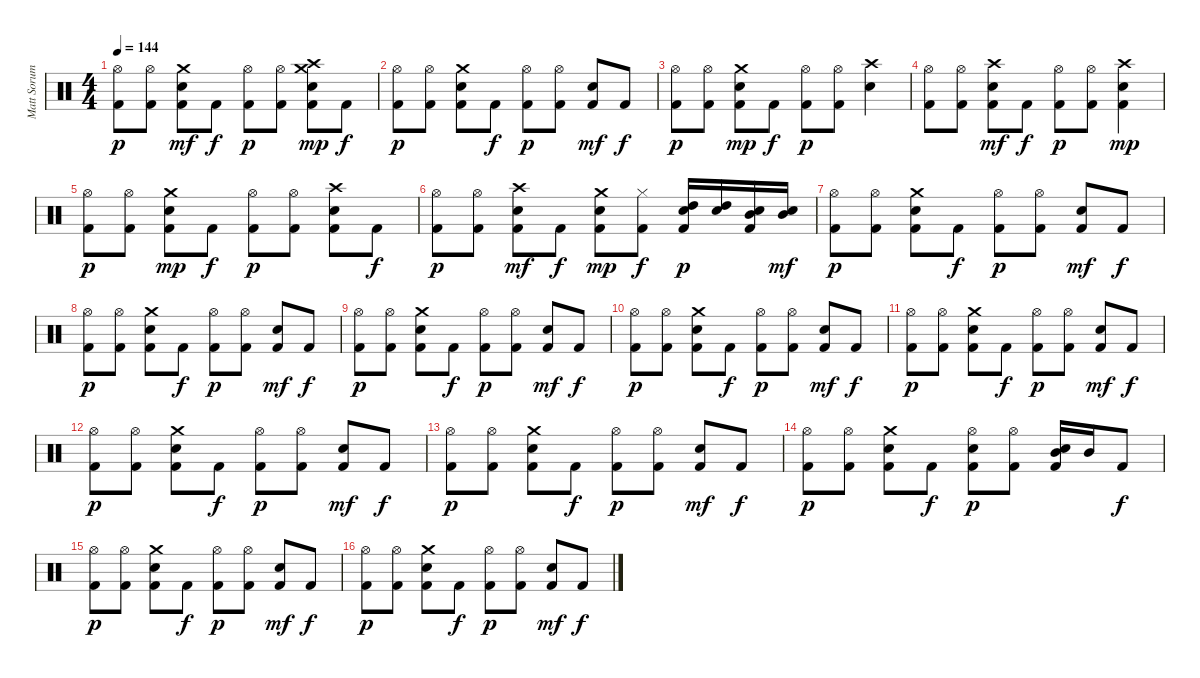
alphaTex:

\track ("Matt Sorum" "Matt Sorum") {instrument percussion}
\staff {score}
\articulation defaults
\ts (4 4)
\tempo 144
\clef neutral
\ks c
("Kick (hit) 2" "Hi-Hat (open)").8{dy p} ("Kick (hit) 2" "Hi-Hat (open)").8 ("Kick (hit) 2" "Snare (hit) 2" "Crash medium (hit)").8{dy mf} "Kick (hit) 2".8{dy f} ("Kick (hit) 2" "Hi-Hat (open)").8{dy p} ("Kick (hit) 2" "Hi-Hat (open)").8 ("Kick (hit) 2" "Snare (hit) 2" "Crash high (hit)" "Crash medium (hit)").8{dy mp} "Kick (hit) 2".8{dy f} |
("Kick (hit) 2" "Hi-Hat (open)").8{dy p} ("Kick (hit) 2" "Hi-Hat (open)").8 ("Kick (hit) 2" "Snare (hit) 2" "Crash medium (hit)").8 "Kick (hit) 2".8{dy f} ("Kick (hit) 2" "Hi-Hat (open)").8{dy p} ("Kick (hit) 2" "Hi-Hat (open)").8 ("Kick (hit) 2" "Snare (hit) 2").8{dy mf} "Kick (hit) 2".8{dy f} |
("Kick (hit) 2" "Hi-Hat (open)").8{dy p} ("Kick (hit) 2" "Hi-Hat (open)").8 ("Kick (hit) 2" "Snare (hit) 2" "Crash medium (hit)").8{dy mp} "Kick (hit) 2".8{dy f} ("Kick (hit) 2" "Hi-Hat (open)").8{dy p} ("Kick (hit) 2" "Hi-Hat (open)").8 ("Snare (hit) 2" "Crash high (hit)").4 |
("Kick (hit) 2" "Hi-Hat (open)").8 ("Kick (hit) 2" "Hi-Hat (open)").8 ("Kick (hit) 2" "Snare (hit) 2" "Crash high (hit)").8{dy mf} "Kick (hit) 2".8{dy f} ("Kick (hit) 2" "Hi-Hat (open)").8{dy p} ("Kick (hit) 2" "Hi-Hat (open)").8 ("Kick (hit) 2" "Snare (hit) 2" "Crash high (hit)").4{dy mp} |
("Kick (hit) 2" "Hi-Hat (open)").8{dy p} ("Kick (hit) 2" "Hi-Hat (open)").8 ("Kick (hit) 2" "Snare (hit) 2" "Crash medium (hit)").8{dy mp} "Kick (hit) 2".8{dy f} ("Kick (hit) 2" "Hi-Hat (open)").8{dy p} ("Kick (hit) 2" "Hi-Hat (open)").8 ("Kick (hit) 2" "Snare (hit) 2" "Crash high (hit)").8 "Kick (hit) 2".8{dy f} |
("Kick (hit) 2" "Hi-Hat (open)").8{dy p} ("Kick (hit) 2" "Hi-Hat (open)").8 ("Kick (hit) 2" "Snare (hit) 2" "Crash high (hit)").8{dy mf} "Kick (hit) 2".8{dy f} ("Kick (hit) 2" "Snare (hit) 2" "Crash medium (hit)").8{dy mp} ("Kick (hit) 2" "Hi-Hat (closed)").8{dy f} ("Kick (hit) 2" "Snare (hit) 2" "High Tom (hit)").16{dy p} ("Snare (hit) 2" "High Tom (hit)").16 ("Kick (hit) 2" "Snare (hit) 2" "Mid Tom (hit)").16 ("Snare (hit) 2" "Mid Tom (hit)").16{dy mf} |
("Kick (hit) 2" "Hi-Hat (open)").8{dy p} ("Kick (hit) 2" "Hi-Hat (open)").8 ("Kick (hit) 2" "Snare (hit) 2" "Crash medium (hit)").8 "Kick (hit) 2".8{dy f} ("Kick (hit) 2" "Hi-Hat (open)").8{dy p} ("Kick (hit) 2" "Hi-Hat (open)").8 ("Kick (hit) 2" "Snare (hit) 2").8{dy mf} "Kick (hit) 2".8{dy f} |
("Kick (hit) 2" "Hi-Hat (open)").8{dy p} ("Kick (hit) 2" "Hi-Hat (open)").8 ("Kick (hit) 2" "Snare (hit) 2" "Crash medium (hit)").8 "Kick (hit) 2".8{dy f} ("Kick (hit) 2" "Hi-Hat (open)").8{dy p} ("Kick (hit) 2" "Hi-Hat (open)").8 ("Kick (hit) 2" "Snare (hit) 2").8{dy mf} "Kick (hit) 2".8{dy f} |
("Kick (hit) 2" "Hi-Hat (open)").8{dy p} ("Kick (hit) 2" "Hi-Hat (open)").8 ("Kick (hit) 2" "Snare (hit) 2" "Crash medium (hit)").8 "Kick (hit) 2".8{dy f} ("Kick (hit) 2" "Hi-Hat (open)").8{dy p} ("Kick (hit) 2" "Hi-Hat (open)").8 ("Kick (hit) 2" "Snare (hit) 2").8{dy mf} "Kick (hit) 2".8{dy f} |
("Kick (hit) 2" "Hi-Hat (open)").8{dy p} ("Kick (hit) 2" "Hi-Hat (open)").8 ("Kick (hit) 2" "Snare (hit) 2" "Crash medium (hit)").8 "Kick (hit) 2".8{dy f} ("Kick (hit) 2" "Hi-Hat (open)").8{dy p} ("Kick (hit) 2" "Hi-Hat (open)").8 ("Kick (hit) 2" "Snare (hit) 2").8{dy mf} "Kick (hit) 2".8{dy f} |
("Kick (hit) 2" "Hi-Hat (open)").8{dy p} ("Kick (hit) 2" "Hi-Hat (open)").8 ("Kick (hit) 2" "Snare (hit) 2" "Crash medium (hit)").8 "Kick (hit) 2".8{dy f} ("Kick (hit) 2" "Hi-Hat (open)").8{dy p} ("Kick (hit) 2" "Hi-Hat (open)").8 ("Kick (hit) 2" "Snare (hit) 2").8{dy mf} "Kick (hit) 2".8{dy f} |
("Kick (hit) 2" "Hi-Hat (open)").8{dy p} ("Kick (hit) 2" "Hi-Hat (open)").8 ("Kick (hit) 2" "Snare (hit) 2" "Crash medium (hit)").8 "Kick (hit) 2".8{dy f} ("Kick (hit) 2" "Hi-Hat (open)").8{dy p} ("Kick (hit) 2" "Hi-Hat (open)").8 ("Kick (hit) 2" "Snare (hit) 2").8{dy mf} "Kick (hit) 2".8{dy f} |
("Kick (hit) 2" "Hi-Hat (open)").8{dy p} ("Kick (hit) 2" "Hi-Hat (open)").8 ("Kick (hit) 2" "Snare (hit) 2" "Crash medium (hit)").8 "Kick (hit) 2".8{dy f} ("Kick (hit) 2" "Hi-Hat (open)").8{dy p} ("Kick (hit) 2" "Hi-Hat (open)").8 ("Kick (hit) 2" "Snare (hit) 2").8{dy mf} "Kick (hit) 2".8{dy f} |
("Kick (hit) 2" "Hi-Hat (open)").8{dy p} ("Kick (hit) 2" "Hi-Hat (open)").8 ("Kick (hit) 2" "Snare (hit) 2" "Crash medium (hit)").8 "Kick (hit) 2".8{dy f} ("Kick (hit) 2" "Snare (hit) 2" "Hi-Hat (open)").8{dy p} ("Kick (hit) 2" "Hi-Hat (open)").8 ("Kick (hit) 2" "Snare (hit) 2" "Mid Tom (hit)").16 "Mid Tom (hit)".16 "Kick (hit) 2".8{dy f} |
("Kick (hit) 2" "Hi-Hat (open)").8{dy p} ("Kick (hit) 2" "Hi-Hat (open)").8 ("Kick (hit) 2" "Snare (hit) 2" "Crash medium (hit)").8 "Kick (hit) 2".8{dy f} ("Kick (hit) 2" "Hi-Hat (open)").8{dy p} ("Kick (hit) 2" "Hi-Hat (open)").8 ("Kick (hit) 2" "Snare (hit) 2").8{dy mf} "Kick (hit) 2".8{dy f} |
("Kick (hit) 2" "Hi-Hat (open)").8{dy p} ("Kick (hit) 2" "Hi-Hat (open)").8 ("Kick (hit) 2" "Snare (hit) 2" "Crash medium (hit)").8 "Kick (hit) 2".8{dy f} ("Kick (hit) 2" "Hi-Hat (open)").8{dy p} ("Kick (hit) 2" "Hi-Hat (open)").8 ("Kick (hit) 2" "Snare (hit) 2").8{dy mf} "Kick (hit) 2".8{dy f}
